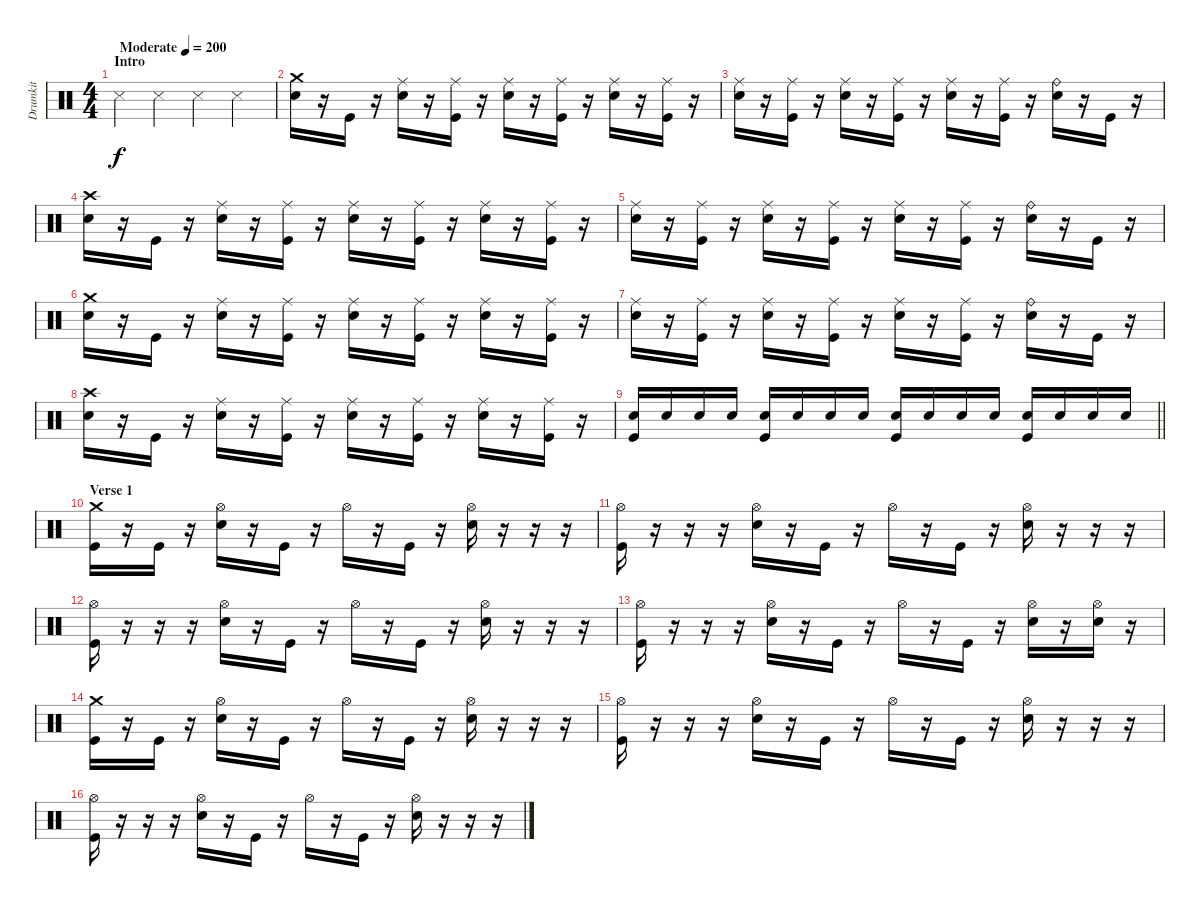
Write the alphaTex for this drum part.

\track ("Drumkit" "Drumkit") {instrument percussion}
\staff {score}
\articulation defaults
\ts (4 4)
\section ("" "Intro")
\tempo (200 "Moderate")
\clef neutral
\ks c "Snare (side stick) 3".4{dy f} "Snare (side stick) 3".4 "Snare (side stick) 3".4 "Snare (side stick) 3".4
|
("Crash medium (hit)" "Snare (hit) 2").16 r.16 "Kick (hit)".16 r.16 ("Ride (middle)" "Snare (hit) 2").16 r.16 ("Ride (middle)" "Kick (hit)").16 r.16 ("Ride (middle)" "Snare (hit) 2").16 r.16 ("Ride (middle)" "Kick (hit)").16 r.16 ("Ride (middle)" "Snare (hit) 2").16 r.16 ("Ride (middle)" "Kick (hit)").16 r.16 |
("Ride (middle)" "Snare (hit) 2").16 r.16 ("Ride (middle)" "Kick (hit)").16 r.16 ("Ride (middle)" "Snare (hit) 2").16 r.16 ("Ride (middle)" "Kick (hit)").16 r.16 ("Ride (middle)" "Snare (hit) 2").16 r.16 ("Ride (middle)" "Kick (hit)").16 r.16 ("Ride (bell)" "Snare (hit) 2").16 r.16 "Kick (hit)".16 r.16 |
("Crash high (hit)" "Snare (hit) 2").16 r.16 "Kick (hit)".16 r.16 ("Ride (middle)" "Snare (hit) 2").16 r.16 ("Ride (middle)" "Kick (hit)").16 r.16 ("Ride (middle)" "Snare (hit) 2").16 r.16 ("Ride (middle)" "Kick (hit)").16 r.16 ("Ride (middle)" "Snare (hit) 2").16 r.16 ("Ride (middle)" "Kick (hit)").16 r.16 |
("Ride (middle)" "Snare (hit) 2").16 r.16 ("Ride (middle)" "Kick (hit)").16 r.16 ("Ride (middle)" "Snare (hit) 2").16 r.16 ("Ride (middle)" "Kick (hit)").16 r.16 ("Ride (middle)" "Snare (hit) 2").16 r.16 ("Ride (middle)" "Kick (hit)").16 r.16 ("Ride (bell)" "Snare (hit) 2").16 r.16 "Kick (hit)".16 r.16 |
("Crash medium (hit)" "Snare (hit) 2").16 r.16 "Kick (hit)".16 r.16 ("Ride (middle)" "Snare (hit) 2").16 r.16 ("Ride (middle)" "Kick (hit)").16 r.16 ("Ride (middle)" "Snare (hit) 2").16 r.16 ("Ride (middle)" "Kick (hit)").16 r.16 ("Ride (middle)" "Snare (hit) 2").16 r.16 ("Ride (middle)" "Kick (hit)").16 r.16 |
("Ride (middle)" "Snare (hit) 2").16 r.16 ("Ride (middle)" "Kick (hit)").16 r.16 ("Ride (middle)" "Snare (hit) 2").16 r.16 ("Ride (middle)" "Kick (hit)").16 r.16 ("Ride (middle)" "Snare (hit) 2").16 r.16 ("Ride (middle)" "Kick (hit)").16 r.16 ("Ride (bell)" "Snare (hit) 2").16 r.16 "Kick (hit)".16 r.16 |
("Crash high (hit)" "Snare (hit) 2").16 r.16 "Kick (hit)".16 r.16 ("Ride (middle)" "Snare (hit) 2").16 r.16 ("Ride (middle)" "Kick (hit)").16 r.16 ("Ride (middle)" "Snare (hit) 2").16 r.16 ("Ride (middle)" "Kick (hit)").16 r.16 ("Ride (middle)" "Snare (hit) 2").16 r.16 ("Ride (middle)" "Kick (hit)").16 r.16 |
\barLineRight lightlight
("Kick (hit)" "Snare (hit) 2").16 "Snare (hit) 2".16 "Snare (hit) 2".16 "Snare (hit) 2".16 ("Kick (hit)" "Snare (hit) 2").16 "Snare (hit) 2".16 "Snare (hit) 2".16 "Snare (hit) 2".16 ("Kick (hit)" "Snare (hit) 2").16 "Snare (hit) 2".16 "Snare (hit) 2".16 "Snare (hit) 2".16 ("Kick (hit)" "Snare (hit) 2").16 "Snare (hit) 2".16 "Snare (hit) 2".16 "Snare (hit) 2".16 |
\section ("" "Verse 1")
("Crash medium (hit)" "Kick (hit)").16 r.16 "Kick (hit)".16 r.16 ("Hi-Hat (open)" "Snare (hit) 2").16 r.16 "Kick (hit)".16 r.16 "Hi-Hat (open)".16 r.16 "Kick (hit)".16 r.16 ("Hi-Hat (open)" "Snare (hit) 2").16 r.16 r.16 r.16 |
("Hi-Hat (open)" "Kick (hit)").16 r.16 r.16 r.16 ("Hi-Hat (open)" "Snare (hit) 2").16 r.16 "Kick (hit)".16 r.16 "Hi-Hat (open)".16 r.16 "Kick (hit)".16 r.16 ("Hi-Hat (open)" "Snare (hit) 2").16 r.16 r.16 r.16 |
("Hi-Hat (open)" "Kick (hit)").16 r.16 r.16 r.16 ("Hi-Hat (open)" "Snare (hit) 2").16 r.16 "Kick (hit)".16 r.16 "Hi-Hat (open)".16 r.16 "Kick (hit)".16 r.16 ("Hi-Hat (open)" "Snare (hit) 2").16 r.16 r.16 r.16 |
("Hi-Hat (open)" "Kick (hit)").16 r.16 r.16 r.16 ("Hi-Hat (open)" "Snare (hit) 2").16 r.16 "Kick (hit)".16 r.16 "Hi-Hat (open)".16 r.16 "Kick (hit)".16 r.16 ("Hi-Hat (open)" "Snare (hit) 2").16 r.16 ("Hi-Hat (open)" "Snare (hit) 2").16 r.16 |
("Crash medium (hit)" "Kick (hit)").16 r.16 "Kick (hit)".16 r.16 ("Hi-Hat (open)" "Snare (hit) 2").16 r.16 "Kick (hit)".16 r.16 "Hi-Hat (open)".16 r.16 "Kick (hit)".16 r.16 ("Hi-Hat (open)" "Snare (hit) 2").16 r.16 r.16 r.16 |
("Hi-Hat (open)" "Kick (hit)").16 r.16 r.16 r.16 ("Hi-Hat (open)" "Snare (hit) 2").16 r.16 "Kick (hit)".16 r.16 "Hi-Hat (open)".16 r.16 "Kick (hit)".16 r.16 ("Hi-Hat (open)" "Snare (hit) 2").16 r.16 r.16 r.16 |
("Hi-Hat (open)" "Kick (hit)").16 r.16 r.16 r.16 ("Hi-Hat (open)" "Snare (hit) 2").16 r.16 "Kick (hit)".16 r.16 "Hi-Hat (open)".16 r.16 "Kick (hit)".16 r.16 ("Hi-Hat (open)" "Snare (hit) 2").16 r.16 r.16 r.16
